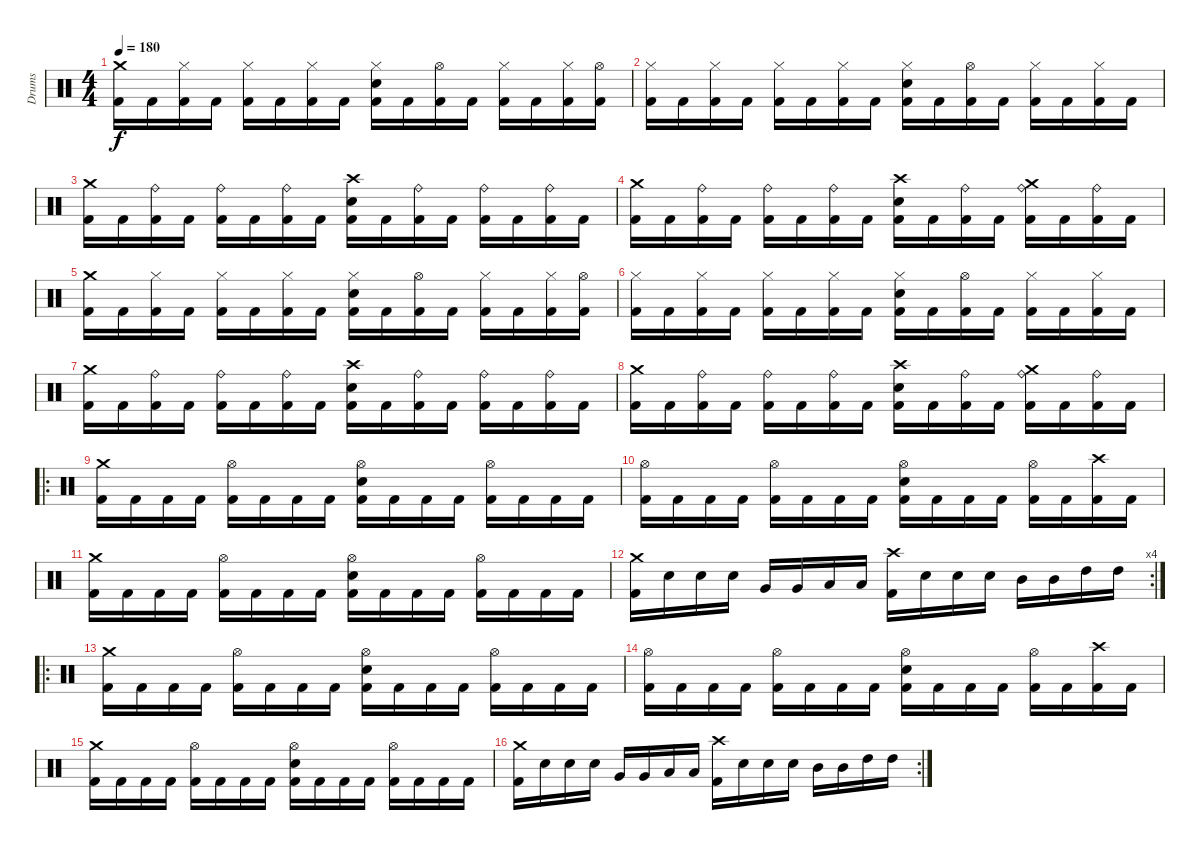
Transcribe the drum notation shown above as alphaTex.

\track ("Drums" "Drums") {instrument percussion}
\staff {score}
\articulation defaults
\ts (4 4)
\tempo 180
\clef neutral
\ks c
("Kick (hit) 2" "Crash medium (hit)").16{dy f} "Kick (hit) 2".16 ("Kick (hit) 2" "Hi-Hat (closed)").16 "Kick (hit) 2".16 ("Kick (hit) 2" "Hi-Hat (closed)").16 "Kick (hit) 2".16 ("Kick (hit) 2" "Hi-Hat (closed)").16 "Kick (hit) 2".16 ("Kick (hit) 2" "Electric Snare (hit)" "Hi-Hat (closed)").16 "Kick (hit) 2".16 ("Kick (hit) 2" "Hi-Hat (open)").16 "Kick (hit) 2".16 ("Kick (hit) 2" "Hi-Hat (closed)").16 "Kick (hit) 2".16 ("Kick (hit) 2" "Hi-Hat (closed)").16 ("Kick (hit) 2" "Hi-Hat (open)").16 |
("Kick (hit) 2" "Hi-Hat (closed)").16 "Kick (hit) 2".16 ("Kick (hit) 2" "Hi-Hat (closed)").16 "Kick (hit) 2".16 ("Kick (hit) 2" "Hi-Hat (closed)").16 "Kick (hit) 2".16 ("Kick (hit) 2" "Hi-Hat (closed)").16 "Kick (hit) 2".16 ("Kick (hit) 2" "Electric Snare (hit)" "Hi-Hat (closed)").16 "Kick (hit) 2".16 ("Kick (hit) 2" "Hi-Hat (open)").16 "Kick (hit) 2".16 ("Kick (hit) 2" "Hi-Hat (closed)").16 "Kick (hit) 2".16 ("Kick (hit) 2" "Hi-Hat (closed)").16 "Kick (hit) 2".16 |
("Kick (hit) 2" "Crash medium (hit)").16 "Kick (hit) 2".16 ("Kick (hit) 2" "Ride (bell)").16 "Kick (hit) 2".16 ("Kick (hit) 2" "Ride (bell)").16 "Kick (hit) 2".16 ("Kick (hit) 2" "Ride (bell)").16 "Kick (hit) 2".16 ("Kick (hit) 2" "Electric Snare (hit)" "Crash high (hit)").16 "Kick (hit) 2".16 ("Kick (hit) 2" "Ride (bell)").16 "Kick (hit) 2".16 ("Kick (hit) 2" "Ride (bell)").16 "Kick (hit) 2".16 ("Kick (hit) 2" "Ride (bell)").16 "Kick (hit) 2".16 |
("Kick (hit) 2" "Crash medium (hit)").16 "Kick (hit) 2".16 ("Kick (hit) 2" "Ride (bell)").16 "Kick (hit) 2".16 ("Kick (hit) 2" "Ride (bell)").16 "Kick (hit) 2".16 ("Kick (hit) 2" "Ride (bell)").16 "Kick (hit) 2".16 ("Kick (hit) 2" "Electric Snare (hit)" "Crash high (hit)").16 "Kick (hit) 2".16 ("Kick (hit) 2" "Ride (bell)").16 "Kick (hit) 2".16 ("Kick (hit) 2" "Ride (bell)" "Crash medium (hit)").16 "Kick (hit) 2".16 ("Kick (hit) 2" "Ride (bell)").16 "Kick (hit) 2".16 |
("Kick (hit) 2" "Crash medium (hit)").16 "Kick (hit) 2".16 ("Kick (hit) 2" "Hi-Hat (closed)").16 "Kick (hit) 2".16 ("Kick (hit) 2" "Hi-Hat (closed)").16 "Kick (hit) 2".16 ("Kick (hit) 2" "Hi-Hat (closed)").16 "Kick (hit) 2".16 ("Kick (hit) 2" "Electric Snare (hit)" "Hi-Hat (closed)").16 "Kick (hit) 2".16 ("Kick (hit) 2" "Hi-Hat (open)").16 "Kick (hit) 2".16 ("Kick (hit) 2" "Hi-Hat (closed)").16 "Kick (hit) 2".16 ("Kick (hit) 2" "Hi-Hat (closed)").16 ("Kick (hit) 2" "Hi-Hat (open)").16 |
("Kick (hit) 2" "Hi-Hat (closed)").16 "Kick (hit) 2".16 ("Kick (hit) 2" "Hi-Hat (closed)").16 "Kick (hit) 2".16 ("Kick (hit) 2" "Hi-Hat (closed)").16 "Kick (hit) 2".16 ("Kick (hit) 2" "Hi-Hat (closed)").16 "Kick (hit) 2".16 ("Kick (hit) 2" "Electric Snare (hit)" "Hi-Hat (closed)").16 "Kick (hit) 2".16 ("Kick (hit) 2" "Hi-Hat (open)").16 "Kick (hit) 2".16 ("Kick (hit) 2" "Hi-Hat (closed)").16 "Kick (hit) 2".16 ("Kick (hit) 2" "Hi-Hat (closed)").16 "Kick (hit) 2".16 |
("Kick (hit) 2" "Crash medium (hit)").16 "Kick (hit) 2".16 ("Kick (hit) 2" "Ride (bell)").16 "Kick (hit) 2".16 ("Kick (hit) 2" "Ride (bell)").16 "Kick (hit) 2".16 ("Kick (hit) 2" "Ride (bell)").16 "Kick (hit) 2".16 ("Kick (hit) 2" "Electric Snare (hit)" "Crash high (hit)").16 "Kick (hit) 2".16 ("Kick (hit) 2" "Ride (bell)").16 "Kick (hit) 2".16 ("Kick (hit) 2" "Ride (bell)").16 "Kick (hit) 2".16 ("Kick (hit) 2" "Ride (bell)").16 "Kick (hit) 2".16 |
("Kick (hit) 2" "Crash medium (hit)").16 "Kick (hit) 2".16 ("Kick (hit) 2" "Ride (bell)").16 "Kick (hit) 2".16 ("Kick (hit) 2" "Ride (bell)").16 "Kick (hit) 2".16 ("Kick (hit) 2" "Ride (bell)").16 "Kick (hit) 2".16 ("Kick (hit) 2" "Electric Snare (hit)" "Crash high (hit)").16 "Kick (hit) 2".16 ("Kick (hit) 2" "Ride (bell)").16 "Kick (hit) 2".16 ("Kick (hit) 2" "Ride (bell)" "Crash medium (hit)").16 "Kick (hit) 2".16 ("Kick (hit) 2" "Ride (bell)").16 "Kick (hit) 2".16 |
\ro
("Kick (hit) 2" "Crash medium (hit)").16 "Kick (hit) 2".16 "Kick (hit) 2".16 "Kick (hit) 2".16 ("Kick (hit) 2" "Hi-Hat (open)").16 "Kick (hit) 2".16 "Kick (hit) 2".16 "Kick (hit) 2".16 ("Kick (hit) 2" "Electric Snare (hit)" "Hi-Hat (open)").16 "Kick (hit) 2".16 "Kick (hit) 2".16 "Kick (hit) 2".16 ("Kick (hit) 2" "Hi-Hat (open)").16 "Kick (hit) 2".16 "Kick (hit) 2".16 "Kick (hit) 2".16 |
("Kick (hit) 2" "Hi-Hat (open)").16 "Kick (hit) 2".16 "Kick (hit) 2".16 "Kick (hit) 2".16 ("Kick (hit) 2" "Hi-Hat (open)").16 "Kick (hit) 2".16 "Kick (hit) 2".16 "Kick (hit) 2".16 ("Kick (hit) 2" "Electric Snare (hit)" "Hi-Hat (open)").16 "Kick (hit) 2".16 "Kick (hit) 2".16 "Kick (hit) 2".16 ("Kick (hit) 2" "Hi-Hat (open)").16 "Kick (hit) 2".16 ("Kick (hit) 2" "Crash high (hit)").16 "Kick (hit) 2".16 |
("Kick (hit) 2" "Crash medium (hit)").16 "Kick (hit) 2".16 "Kick (hit) 2".16 "Kick (hit) 2".16 ("Kick (hit) 2" "Hi-Hat (open)").16 "Kick (hit) 2".16 "Kick (hit) 2".16 "Kick (hit) 2".16 ("Kick (hit) 2" "Electric Snare (hit)" "Hi-Hat (open)").16 "Kick (hit) 2".16 "Kick (hit) 2".16 "Kick (hit) 2".16 ("Kick (hit) 2" "Hi-Hat (open)").16 "Kick (hit) 2".16 "Kick (hit) 2".16 "Kick (hit) 2".16 |
\rc 4
("Kick (hit) 2" "Crash medium (hit)").16 "Electric Snare (hit)".16 "Electric Snare (hit)".16 "Electric Snare (hit)".16 "Very Low Tom (hit)".16 "Very Low Tom (hit)".16 "Low Tom (hit)".16 "Low Tom (hit)".16 ("Kick (hit) 2" "Crash high (hit)").16 "Electric Snare (hit)".16 "Electric Snare (hit)".16 "Electric Snare (hit)".16 "Mid Tom (hit)".16 "Mid Tom (hit)".16 "High Tom (hit)".16 "High Tom (hit)".16 |
\ro
("Kick (hit) 2" "Crash medium (hit)").16 "Kick (hit) 2".16 "Kick (hit) 2".16 "Kick (hit) 2".16 ("Kick (hit) 2" "Hi-Hat (open)").16 "Kick (hit) 2".16 "Kick (hit) 2".16 "Kick (hit) 2".16 ("Kick (hit) 2" "Electric Snare (hit)" "Hi-Hat (open)").16 "Kick (hit) 2".16 "Kick (hit) 2".16 "Kick (hit) 2".16 ("Kick (hit) 2" "Hi-Hat (open)").16 "Kick (hit) 2".16 "Kick (hit) 2".16 "Kick (hit) 2".16 |
("Kick (hit) 2" "Hi-Hat (open)").16 "Kick (hit) 2".16 "Kick (hit) 2".16 "Kick (hit) 2".16 ("Kick (hit) 2" "Hi-Hat (open)").16 "Kick (hit) 2".16 "Kick (hit) 2".16 "Kick (hit) 2".16 ("Kick (hit) 2" "Electric Snare (hit)" "Hi-Hat (open)").16 "Kick (hit) 2".16 "Kick (hit) 2".16 "Kick (hit) 2".16 ("Kick (hit) 2" "Hi-Hat (open)").16 "Kick (hit) 2".16 ("Kick (hit) 2" "Crash high (hit)").16 "Kick (hit) 2".16 |
("Kick (hit) 2" "Crash medium (hit)").16 "Kick (hit) 2".16 "Kick (hit) 2".16 "Kick (hit) 2".16 ("Kick (hit) 2" "Hi-Hat (open)").16 "Kick (hit) 2".16 "Kick (hit) 2".16 "Kick (hit) 2".16 ("Kick (hit) 2" "Electric Snare (hit)" "Hi-Hat (open)").16 "Kick (hit) 2".16 "Kick (hit) 2".16 "Kick (hit) 2".16 ("Kick (hit) 2" "Hi-Hat (open)").16 "Kick (hit) 2".16 "Kick (hit) 2".16 "Kick (hit) 2".16 |
\rc 2
("Kick (hit) 2" "Crash medium (hit)").16 "Electric Snare (hit)".16 "Electric Snare (hit)".16 "Electric Snare (hit)".16 "Very Low Tom (hit)".16 "Very Low Tom (hit)".16 "Low Tom (hit)".16 "Low Tom (hit)".16 ("Kick (hit) 2" "Crash high (hit)").16 "Electric Snare (hit)".16 "Electric Snare (hit)".16 "Electric Snare (hit)".16 "Mid Tom (hit)".16 "Mid Tom (hit)".16 "High Tom (hit)".16 "High Tom (hit)".16
